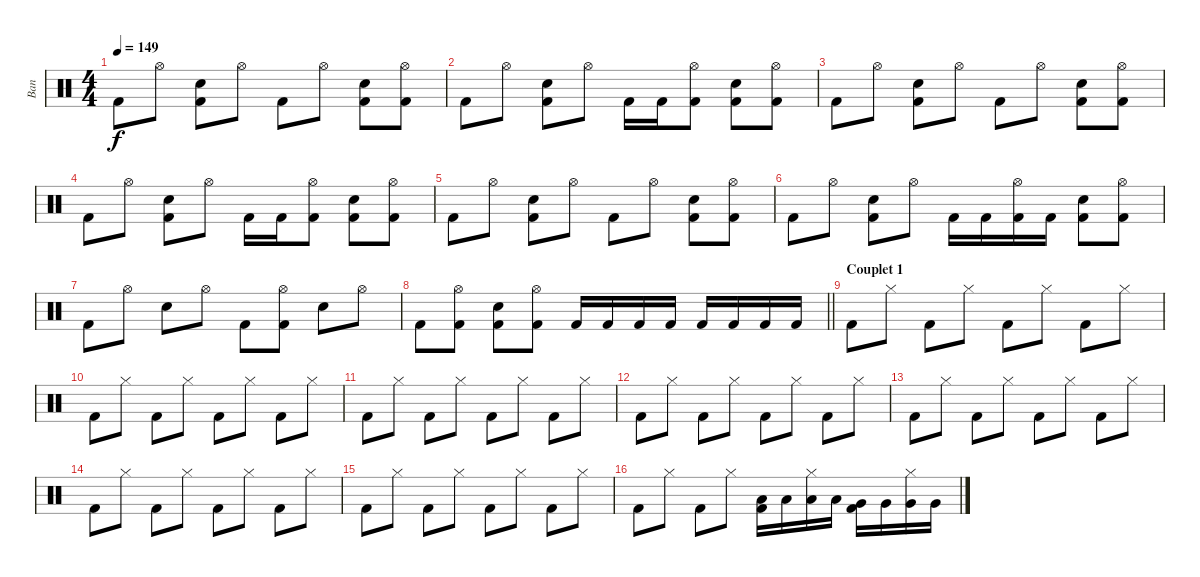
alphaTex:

\track ("Ban" "Ban") {instrument percussion}
\staff {score}
\articulation defaults
\ts (4 4)
\tempo 149
\clef neutral
\ks c "Kick (hit) 2".8{dy f} "Hi-Hat (open)".8
("Electric Snare (hit)" "Kick (hit) 2").8 "Hi-Hat (open)".8 "Kick (hit) 2".8 "Hi-Hat (open)".8 ("Electric Snare (hit)" "Kick (hit) 2").8 ("Hi-Hat (open)" "Kick (hit) 2").8 |
"Kick (hit) 2".8 "Hi-Hat (open)".8 ("Electric Snare (hit)" "Kick (hit) 2").8 "Hi-Hat (open)".8 "Kick (hit) 2".16 "Kick (hit) 2".16 ("Hi-Hat (open)" "Kick (hit) 2").8 ("Electric Snare (hit)" "Kick (hit) 2").8 ("Hi-Hat (open)" "Kick (hit) 2").8 |
"Kick (hit) 2".8 "Hi-Hat (open)".8 ("Electric Snare (hit)" "Kick (hit) 2").8 "Hi-Hat (open)".8 "Kick (hit) 2".8 "Hi-Hat (open)".8 ("Electric Snare (hit)" "Kick (hit) 2").8 ("Hi-Hat (open)" "Kick (hit) 2").8 |
"Kick (hit) 2".8 "Hi-Hat (open)".8 ("Electric Snare (hit)" "Kick (hit) 2").8 "Hi-Hat (open)".8 "Kick (hit) 2".16 "Kick (hit) 2".16 ("Hi-Hat (open)" "Kick (hit) 2").8 ("Electric Snare (hit)" "Kick (hit) 2").8 ("Hi-Hat (open)" "Kick (hit) 2").8 |
"Kick (hit) 2".8 "Hi-Hat (open)".8 ("Electric Snare (hit)" "Kick (hit) 2").8 "Hi-Hat (open)".8 "Kick (hit) 2".8 "Hi-Hat (open)".8 ("Electric Snare (hit)" "Kick (hit) 2").8 ("Hi-Hat (open)" "Kick (hit) 2").8 |
"Kick (hit) 2".8 "Hi-Hat (open)".8 ("Electric Snare (hit)" "Kick (hit) 2").8 "Hi-Hat (open)".8 "Kick (hit) 2".16 "Kick (hit) 2".16 ("Hi-Hat (open)" "Kick (hit) 2").16 "Kick (hit) 2".16 ("Electric Snare (hit)" "Kick (hit) 2").8 ("Hi-Hat (open)" "Kick (hit) 2").8 |
"Kick (hit) 2".8 "Hi-Hat (open)".8 "Electric Snare (hit)".8 "Hi-Hat (open)".8 "Kick (hit) 2".8 ("Hi-Hat (open)" "Kick (hit) 2").8 "Electric Snare (hit)".8 "Hi-Hat (open)".8 |
\barLineRight lightlight "Kick (hit) 2".8
("Hi-Hat (open)" "Kick (hit) 2").8 ("Electric Snare (hit)" "Kick (hit) 2").8 ("Hi-Hat (open)" "Kick (hit) 2").8 "Kick (hit) 2".16 "Kick (hit) 2".16 "Kick (hit) 2".16 "Kick (hit) 2".16 "Kick (hit) 2".16 "Kick (hit) 2".16 "Kick (hit) 2".16 "Kick (hit) 2".16 |
\section ("" "Couplet 1")
"Kick (hit) 2".8 "Hi-Hat (closed)".8 "Kick (hit) 2".8 "Hi-Hat (closed)".8 "Kick (hit) 2".8 "Hi-Hat (closed)".8 "Kick (hit) 2".8 "Hi-Hat (closed)".8 |
"Kick (hit) 2".8 "Hi-Hat (closed)".8 "Kick (hit) 2".8 "Hi-Hat (closed)".8 "Kick (hit) 2".8 "Hi-Hat (closed)".8 "Kick (hit) 2".8 "Hi-Hat (closed)".8 |
"Kick (hit) 2".8 "Hi-Hat (closed)".8 "Kick (hit) 2".8 "Hi-Hat (closed)".8 "Kick (hit) 2".8 "Hi-Hat (closed)".8 "Kick (hit) 2".8 "Hi-Hat (closed)".8 |
"Kick (hit) 2".8 "Hi-Hat (closed)".8 "Kick (hit) 2".8 "Hi-Hat (closed)".8 "Kick (hit) 2".8 "Hi-Hat (closed)".8 "Kick (hit) 2".8 "Hi-Hat (closed)".8 |
"Kick (hit) 2".8 "Hi-Hat (closed)".8 "Kick (hit) 2".8 "Hi-Hat (closed)".8 "Kick (hit) 2".8 "Hi-Hat (closed)".8 "Kick (hit) 2".8 "Hi-Hat (closed)".8 |
"Kick (hit) 2".8 "Hi-Hat (closed)".8 "Kick (hit) 2".8 "Hi-Hat (closed)".8 "Kick (hit) 2".8 "Hi-Hat (closed)".8 "Kick (hit) 2".8 "Hi-Hat (closed)".8 |
"Kick (hit) 2".8 "Hi-Hat (closed)".8 "Kick (hit) 2".8 "Hi-Hat (closed)".8 "Kick (hit) 2".8 "Hi-Hat (closed)".8 "Kick (hit) 2".8 "Hi-Hat (closed)".8 |
"Kick (hit) 2".8 "Hi-Hat (closed)".8 "Kick (hit) 2".8 "Hi-Hat (closed)".8 ("Low Floor Tom (hit)" "Kick (hit) 2").16 "Low Floor Tom (hit)".16 ("Hi-Hat (closed)" "Low Floor Tom (hit)").16 "Low Floor Tom (hit)".16 ("Very Low Tom (hit)" "Kick (hit) 2").16 "Very Low Tom (hit)".16 ("Hi-Hat (closed)" "Very Low Tom (hit)").16 "Very Low Tom (hit)".16
